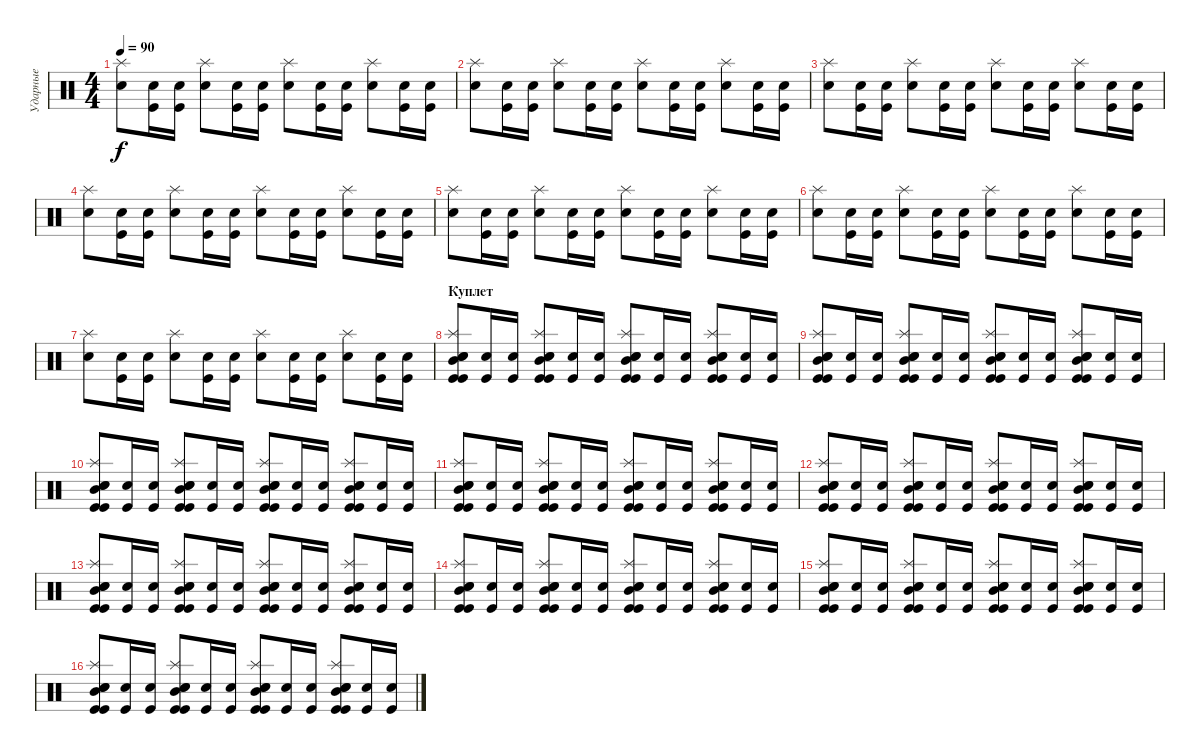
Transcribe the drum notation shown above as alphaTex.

\track ("Ударные" "Ударные") {instrument percussion}
\staff {score}
\articulation defaults
\ts (4 4)
\tempo 90
\clef neutral
\ks c
("Snare (hit) 2" "Splash (hit)").8{dy f} ("Snare (hit) 2" "Kick (hit)").16 ("Snare (hit) 2" "Kick (hit)").16 ("Snare (hit) 2" "Splash (hit)").8 ("Snare (hit) 2" "Kick (hit)").16 ("Snare (hit) 2" "Kick (hit)").16 ("Snare (hit) 2" "Splash (hit)").8 ("Snare (hit) 2" "Kick (hit)").16 ("Snare (hit) 2" "Kick (hit)").16 ("Snare (hit) 2" "Splash (hit)").8 ("Snare (hit) 2" "Kick (hit)").16 ("Snare (hit) 2" "Kick (hit)").16 |
("Snare (hit) 2" "Splash (hit)").8 ("Snare (hit) 2" "Kick (hit)").16 ("Snare (hit) 2" "Kick (hit)").16 ("Snare (hit) 2" "Splash (hit)").8 ("Snare (hit) 2" "Kick (hit)").16 ("Snare (hit) 2" "Kick (hit)").16 ("Snare (hit) 2" "Splash (hit)").8 ("Snare (hit) 2" "Kick (hit)").16 ("Snare (hit) 2" "Kick (hit)").16 ("Snare (hit) 2" "Splash (hit)").8 ("Snare (hit) 2" "Kick (hit)").16 ("Snare (hit) 2" "Kick (hit)").16 |
("Snare (hit) 2" "Splash (hit)").8 ("Snare (hit) 2" "Kick (hit)").16 ("Snare (hit) 2" "Kick (hit)").16 ("Snare (hit) 2" "Splash (hit)").8 ("Snare (hit) 2" "Kick (hit)").16 ("Snare (hit) 2" "Kick (hit)").16 ("Snare (hit) 2" "Splash (hit)").8 ("Snare (hit) 2" "Kick (hit)").16 ("Snare (hit) 2" "Kick (hit)").16 ("Snare (hit) 2" "Splash (hit)").8 ("Snare (hit) 2" "Kick (hit)").16 ("Snare (hit) 2" "Kick (hit)").16 |
("Snare (hit) 2" "Splash (hit)").8 ("Snare (hit) 2" "Kick (hit)").16 ("Snare (hit) 2" "Kick (hit)").16 ("Snare (hit) 2" "Splash (hit)").8 ("Snare (hit) 2" "Kick (hit)").16 ("Snare (hit) 2" "Kick (hit)").16 ("Snare (hit) 2" "Splash (hit)").8 ("Snare (hit) 2" "Kick (hit)").16 ("Snare (hit) 2" "Kick (hit)").16 ("Snare (hit) 2" "Splash (hit)").8 ("Snare (hit) 2" "Kick (hit)").16 ("Snare (hit) 2" "Kick (hit)").16 |
("Snare (hit) 2" "Splash (hit)").8 ("Snare (hit) 2" "Kick (hit)").16 ("Snare (hit) 2" "Kick (hit)").16 ("Snare (hit) 2" "Splash (hit)").8 ("Snare (hit) 2" "Kick (hit)").16 ("Snare (hit) 2" "Kick (hit)").16 ("Snare (hit) 2" "Splash (hit)").8 ("Snare (hit) 2" "Kick (hit)").16 ("Snare (hit) 2" "Kick (hit)").16 ("Snare (hit) 2" "Splash (hit)").8 ("Snare (hit) 2" "Kick (hit)").16 ("Snare (hit) 2" "Kick (hit)").16 |
("Snare (hit) 2" "Splash (hit)").8 ("Snare (hit) 2" "Kick (hit)").16 ("Snare (hit) 2" "Kick (hit)").16 ("Snare (hit) 2" "Splash (hit)").8 ("Snare (hit) 2" "Kick (hit)").16 ("Snare (hit) 2" "Kick (hit)").16 ("Snare (hit) 2" "Splash (hit)").8 ("Snare (hit) 2" "Kick (hit)").16 ("Snare (hit) 2" "Kick (hit)").16 ("Snare (hit) 2" "Splash (hit)").8 ("Snare (hit) 2" "Kick (hit)").16 ("Snare (hit) 2" "Kick (hit)").16 |
("Snare (hit) 2" "Splash (hit)").8 ("Snare (hit) 2" "Kick (hit)").16 ("Snare (hit) 2" "Kick (hit)").16 ("Snare (hit) 2" "Splash (hit)").8 ("Snare (hit) 2" "Kick (hit)").16 ("Snare (hit) 2" "Kick (hit)").16 ("Snare (hit) 2" "Splash (hit)").8 ("Snare (hit) 2" "Kick (hit)").16 ("Snare (hit) 2" "Kick (hit)").16 ("Snare (hit) 2" "Splash (hit)").8 ("Snare (hit) 2" "Kick (hit)").16 ("Snare (hit) 2" "Kick (hit)").16 |
\section ("" "Куплет")
("Kick (hit)" "Kick (hit)" "Mid Tom (hit)" "Electric Snare (hit)" "Snare (hit) 2" "Splash (hit)").8 ("Snare (hit) 2" "Kick (hit)").16 ("Snare (hit) 2" "Kick (hit)").16 ("Kick (hit)" "Kick (hit)" "Mid Tom (hit)" "Electric Snare (hit)" "Snare (hit) 2" "Splash (hit)").8 ("Snare (hit) 2" "Kick (hit)").16 ("Snare (hit) 2" "Kick (hit)").16 ("Kick (hit)" "Kick (hit)" "Mid Tom (hit)" "Electric Snare (hit)" "Snare (hit) 2" "Splash (hit)").8 ("Snare (hit) 2" "Kick (hit)").16 ("Snare (hit) 2" "Kick (hit)").16 ("Kick (hit)" "Kick (hit)" "Mid Tom (hit)" "Electric Snare (hit)" "Snare (hit) 2" "Splash (hit)").8 ("Snare (hit) 2" "Kick (hit)").16 ("Snare (hit) 2" "Kick (hit)").16 |
("Kick (hit)" "Kick (hit)" "Mid Tom (hit)" "Electric Snare (hit)" "Snare (hit) 2" "Splash (hit)").8 ("Snare (hit) 2" "Kick (hit)").16 ("Snare (hit) 2" "Kick (hit)").16 ("Kick (hit)" "Kick (hit)" "Mid Tom (hit)" "Electric Snare (hit)" "Snare (hit) 2" "Splash (hit)").8 ("Snare (hit) 2" "Kick (hit)").16 ("Snare (hit) 2" "Kick (hit)").16 ("Kick (hit)" "Kick (hit)" "Mid Tom (hit)" "Electric Snare (hit)" "Snare (hit) 2" "Splash (hit)").8 ("Snare (hit) 2" "Kick (hit)").16 ("Snare (hit) 2" "Kick (hit)").16 ("Kick (hit)" "Kick (hit)" "Mid Tom (hit)" "Electric Snare (hit)" "Snare (hit) 2" "Splash (hit)").8 ("Snare (hit) 2" "Kick (hit)").16 ("Snare (hit) 2" "Kick (hit)").16 |
("Kick (hit)" "Kick (hit)" "Mid Tom (hit)" "Electric Snare (hit)" "Snare (hit) 2" "Splash (hit)").8 ("Snare (hit) 2" "Kick (hit)").16 ("Snare (hit) 2" "Kick (hit)").16 ("Kick (hit)" "Kick (hit)" "Mid Tom (hit)" "Electric Snare (hit)" "Snare (hit) 2" "Splash (hit)").8 ("Snare (hit) 2" "Kick (hit)").16 ("Snare (hit) 2" "Kick (hit)").16 ("Kick (hit)" "Kick (hit)" "Mid Tom (hit)" "Electric Snare (hit)" "Snare (hit) 2" "Splash (hit)").8 ("Snare (hit) 2" "Kick (hit)").16 ("Snare (hit) 2" "Kick (hit)").16 ("Kick (hit)" "Kick (hit)" "Mid Tom (hit)" "Electric Snare (hit)" "Snare (hit) 2" "Splash (hit)").8 ("Snare (hit) 2" "Kick (hit)").16 ("Snare (hit) 2" "Kick (hit)").16 |
("Kick (hit)" "Kick (hit)" "Mid Tom (hit)" "Electric Snare (hit)" "Snare (hit) 2" "Splash (hit)").8 ("Snare (hit) 2" "Kick (hit)").16 ("Snare (hit) 2" "Kick (hit)").16 ("Kick (hit)" "Kick (hit)" "Mid Tom (hit)" "Electric Snare (hit)" "Snare (hit) 2" "Splash (hit)").8 ("Snare (hit) 2" "Kick (hit)").16 ("Snare (hit) 2" "Kick (hit)").16 ("Kick (hit)" "Kick (hit)" "Mid Tom (hit)" "Electric Snare (hit)" "Snare (hit) 2" "Splash (hit)").8 ("Snare (hit) 2" "Kick (hit)").16 ("Snare (hit) 2" "Kick (hit)").16 ("Kick (hit)" "Kick (hit)" "Mid Tom (hit)" "Electric Snare (hit)" "Snare (hit) 2" "Splash (hit)").8 ("Snare (hit) 2" "Kick (hit)").16 ("Snare (hit) 2" "Kick (hit)").16 |
("Kick (hit)" "Kick (hit)" "Mid Tom (hit)" "Electric Snare (hit)" "Snare (hit) 2" "Splash (hit)").8 ("Snare (hit) 2" "Kick (hit)").16 ("Snare (hit) 2" "Kick (hit)").16 ("Kick (hit)" "Kick (hit)" "Mid Tom (hit)" "Electric Snare (hit)" "Snare (hit) 2" "Splash (hit)").8 ("Snare (hit) 2" "Kick (hit)").16 ("Snare (hit) 2" "Kick (hit)").16 ("Kick (hit)" "Kick (hit)" "Mid Tom (hit)" "Electric Snare (hit)" "Snare (hit) 2" "Splash (hit)").8 ("Snare (hit) 2" "Kick (hit)").16 ("Snare (hit) 2" "Kick (hit)").16 ("Kick (hit)" "Kick (hit)" "Mid Tom (hit)" "Electric Snare (hit)" "Snare (hit) 2" "Splash (hit)").8 ("Snare (hit) 2" "Kick (hit)").16 ("Snare (hit) 2" "Kick (hit)").16 |
("Kick (hit)" "Kick (hit)" "Mid Tom (hit)" "Electric Snare (hit)" "Snare (hit) 2" "Splash (hit)").8 ("Snare (hit) 2" "Kick (hit)").16 ("Snare (hit) 2" "Kick (hit)").16 ("Kick (hit)" "Kick (hit)" "Mid Tom (hit)" "Electric Snare (hit)" "Snare (hit) 2" "Splash (hit)").8 ("Snare (hit) 2" "Kick (hit)").16 ("Snare (hit) 2" "Kick (hit)").16 ("Kick (hit)" "Kick (hit)" "Mid Tom (hit)" "Electric Snare (hit)" "Snare (hit) 2" "Splash (hit)").8 ("Snare (hit) 2" "Kick (hit)").16 ("Snare (hit) 2" "Kick (hit)").16 ("Kick (hit)" "Kick (hit)" "Mid Tom (hit)" "Electric Snare (hit)" "Snare (hit) 2" "Splash (hit)").8 ("Snare (hit) 2" "Kick (hit)").16 ("Snare (hit) 2" "Kick (hit)").16 |
("Kick (hit)" "Kick (hit)" "Mid Tom (hit)" "Electric Snare (hit)" "Snare (hit) 2" "Splash (hit)").8 ("Snare (hit) 2" "Kick (hit)").16 ("Snare (hit) 2" "Kick (hit)").16 ("Kick (hit)" "Kick (hit)" "Mid Tom (hit)" "Electric Snare (hit)" "Snare (hit) 2" "Splash (hit)").8 ("Snare (hit) 2" "Kick (hit)").16 ("Snare (hit) 2" "Kick (hit)").16 ("Kick (hit)" "Kick (hit)" "Mid Tom (hit)" "Electric Snare (hit)" "Snare (hit) 2" "Splash (hit)").8 ("Snare (hit) 2" "Kick (hit)").16 ("Snare (hit) 2" "Kick (hit)").16 ("Kick (hit)" "Kick (hit)" "Mid Tom (hit)" "Electric Snare (hit)" "Snare (hit) 2" "Splash (hit)").8 ("Snare (hit) 2" "Kick (hit)").16 ("Snare (hit) 2" "Kick (hit)").16 |
("Kick (hit)" "Kick (hit)" "Mid Tom (hit)" "Electric Snare (hit)" "Snare (hit) 2" "Splash (hit)").8 ("Snare (hit) 2" "Kick (hit)").16 ("Snare (hit) 2" "Kick (hit)").16 ("Kick (hit)" "Kick (hit)" "Mid Tom (hit)" "Electric Snare (hit)" "Snare (hit) 2" "Splash (hit)").8 ("Snare (hit) 2" "Kick (hit)").16 ("Snare (hit) 2" "Kick (hit)").16 ("Kick (hit)" "Kick (hit)" "Mid Tom (hit)" "Electric Snare (hit)" "Snare (hit) 2" "Splash (hit)").8 ("Snare (hit) 2" "Kick (hit)").16 ("Snare (hit) 2" "Kick (hit)").16 ("Kick (hit)" "Kick (hit)" "Mid Tom (hit)" "Electric Snare (hit)" "Snare (hit) 2" "Splash (hit)").8 ("Snare (hit) 2" "Kick (hit)").16 ("Snare (hit) 2" "Kick (hit)").16 |
("Kick (hit)" "Kick (hit)" "Mid Tom (hit)" "Electric Snare (hit)" "Snare (hit) 2" "Splash (hit)").8 ("Snare (hit) 2" "Kick (hit)").16 ("Snare (hit) 2" "Kick (hit)").16 ("Kick (hit)" "Kick (hit)" "Mid Tom (hit)" "Electric Snare (hit)" "Snare (hit) 2" "Splash (hit)").8 ("Snare (hit) 2" "Kick (hit)").16 ("Snare (hit) 2" "Kick (hit)").16 ("Kick (hit)" "Kick (hit)" "Mid Tom (hit)" "Electric Snare (hit)" "Snare (hit) 2" "Splash (hit)").8 ("Snare (hit) 2" "Kick (hit)").16 ("Snare (hit) 2" "Kick (hit)").16 ("Kick (hit)" "Kick (hit)" "Mid Tom (hit)" "Electric Snare (hit)" "Snare (hit) 2" "Splash (hit)").8 ("Snare (hit) 2" "Kick (hit)").16 ("Snare (hit) 2" "Kick (hit)").16
